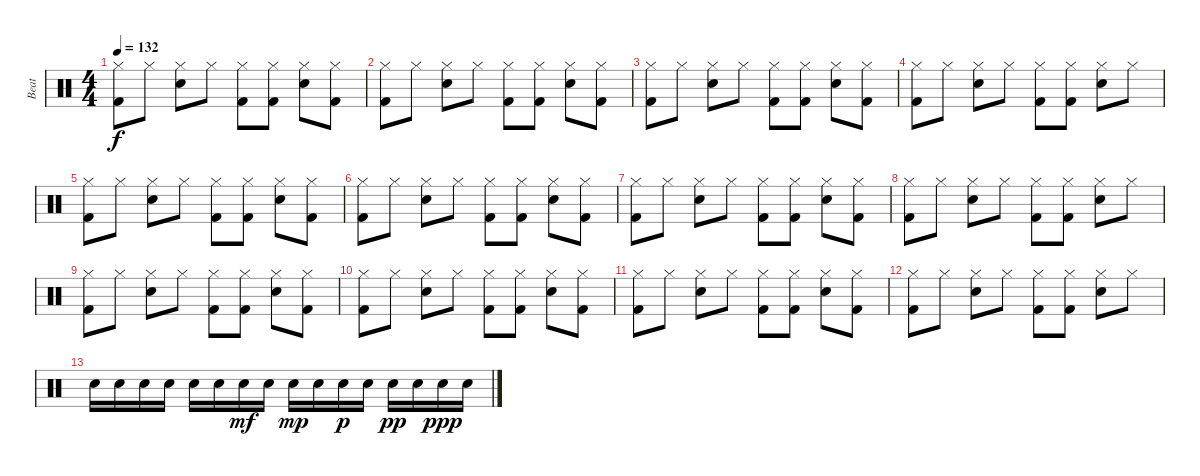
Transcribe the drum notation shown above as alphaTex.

\track ("Beat" "Beat") {instrument percussion}
\staff {score}
\articulation defaults
\ts (4 4)
\tempo 132
\clef neutral
\ks c
("Kick (hit) 2" "Hi-Hat (closed)").8{dy f} "Hi-Hat (closed)".8 ("Electric Snare (hit)" "Hi-Hat (closed)").8 "Hi-Hat (closed)".8 ("Kick (hit) 2" "Hi-Hat (closed)").8 ("Kick (hit) 2" "Hi-Hat (closed)").8 ("Electric Snare (hit)" "Hi-Hat (closed)").8 ("Kick (hit) 2" "Hi-Hat (closed)").8 |
("Kick (hit) 2" "Hi-Hat (closed)").8 "Hi-Hat (closed)".8 ("Electric Snare (hit)" "Hi-Hat (closed)").8 "Hi-Hat (closed)".8 ("Kick (hit) 2" "Hi-Hat (closed)").8 ("Kick (hit) 2" "Hi-Hat (closed)").8 ("Electric Snare (hit)" "Hi-Hat (closed)").8 ("Kick (hit) 2" "Hi-Hat (closed)").8 |
("Kick (hit) 2" "Hi-Hat (closed)").8 "Hi-Hat (closed)".8 ("Electric Snare (hit)" "Hi-Hat (closed)").8 "Hi-Hat (closed)".8 ("Kick (hit) 2" "Hi-Hat (closed)").8 ("Kick (hit) 2" "Hi-Hat (closed)").8 ("Electric Snare (hit)" "Hi-Hat (closed)").8 ("Kick (hit) 2" "Hi-Hat (closed)").8 |
("Kick (hit) 2" "Hi-Hat (closed)").8 "Hi-Hat (closed)".8 ("Electric Snare (hit)" "Hi-Hat (closed)").8 "Hi-Hat (closed)".8 ("Kick (hit) 2" "Hi-Hat (closed)").8 ("Kick (hit) 2" "Hi-Hat (closed)").8 ("Electric Snare (hit)" "Hi-Hat (closed)").8 "Hi-Hat (closed)".8 |
("Kick (hit) 2" "Hi-Hat (closed)").8 "Hi-Hat (closed)".8 ("Electric Snare (hit)" "Hi-Hat (closed)").8 "Hi-Hat (closed)".8 ("Kick (hit) 2" "Hi-Hat (closed)").8 ("Kick (hit) 2" "Hi-Hat (closed)").8 ("Electric Snare (hit)" "Hi-Hat (closed)").8 ("Kick (hit) 2" "Hi-Hat (closed)").8 |
("Kick (hit) 2" "Hi-Hat (closed)").8 "Hi-Hat (closed)".8 ("Electric Snare (hit)" "Hi-Hat (closed)").8 "Hi-Hat (closed)".8 ("Kick (hit) 2" "Hi-Hat (closed)").8 ("Kick (hit) 2" "Hi-Hat (closed)").8 ("Electric Snare (hit)" "Hi-Hat (closed)").8 ("Kick (hit) 2" "Hi-Hat (closed)").8 |
("Kick (hit) 2" "Hi-Hat (closed)").8 "Hi-Hat (closed)".8 ("Electric Snare (hit)" "Hi-Hat (closed)").8 "Hi-Hat (closed)".8 ("Kick (hit) 2" "Hi-Hat (closed)").8 ("Kick (hit) 2" "Hi-Hat (closed)").8 ("Electric Snare (hit)" "Hi-Hat (closed)").8 ("Kick (hit) 2" "Hi-Hat (closed)").8 |
("Kick (hit) 2" "Hi-Hat (closed)").8 "Hi-Hat (closed)".8 ("Electric Snare (hit)" "Hi-Hat (closed)").8 "Hi-Hat (closed)".8 ("Kick (hit) 2" "Hi-Hat (closed)").8 ("Kick (hit) 2" "Hi-Hat (closed)").8 ("Electric Snare (hit)" "Hi-Hat (closed)").8 "Hi-Hat (closed)".8 |
("Kick (hit) 2" "Hi-Hat (closed)").8 "Hi-Hat (closed)".8 ("Electric Snare (hit)" "Hi-Hat (closed)").8 "Hi-Hat (closed)".8 ("Kick (hit) 2" "Hi-Hat (closed)").8 ("Kick (hit) 2" "Hi-Hat (closed)").8 ("Electric Snare (hit)" "Hi-Hat (closed)").8 ("Kick (hit) 2" "Hi-Hat (closed)").8 |
("Kick (hit) 2" "Hi-Hat (closed)").8 "Hi-Hat (closed)".8 ("Electric Snare (hit)" "Hi-Hat (closed)").8 "Hi-Hat (closed)".8 ("Kick (hit) 2" "Hi-Hat (closed)").8 ("Kick (hit) 2" "Hi-Hat (closed)").8 ("Electric Snare (hit)" "Hi-Hat (closed)").8 ("Kick (hit) 2" "Hi-Hat (closed)").8 |
("Kick (hit) 2" "Hi-Hat (closed)").8 "Hi-Hat (closed)".8 ("Electric Snare (hit)" "Hi-Hat (closed)").8 "Hi-Hat (closed)".8 ("Kick (hit) 2" "Hi-Hat (closed)").8 ("Kick (hit) 2" "Hi-Hat (closed)").8 ("Electric Snare (hit)" "Hi-Hat (closed)").8 ("Kick (hit) 2" "Hi-Hat (closed)").8 |
("Kick (hit) 2" "Hi-Hat (closed)").8 "Hi-Hat (closed)".8 ("Electric Snare (hit)" "Hi-Hat (closed)").8 "Hi-Hat (closed)".8 ("Kick (hit) 2" "Hi-Hat (closed)").8 ("Kick (hit) 2" "Hi-Hat (closed)").8 ("Electric Snare (hit)" "Hi-Hat (closed)").8 "Hi-Hat (closed)".8 |
"Snare (hit) 2".16 "Snare (hit) 2".16 "Snare (hit) 2".16 "Snare (hit) 2".16 "Snare (hit) 2".16 "Snare (hit) 2".16 "Snare (hit) 2".16{dy mf} "Snare (hit) 2".16 "Snare (hit) 2".16{dy mp} "Snare (hit) 2".16 "Snare (hit) 2".16{dy p} "Snare (hit) 2".16 "Snare (hit) 2".16{dy pp} "Snare (hit) 2".16 "Snare (hit) 2".16{dy ppp} "Snare (hit) 2".16
